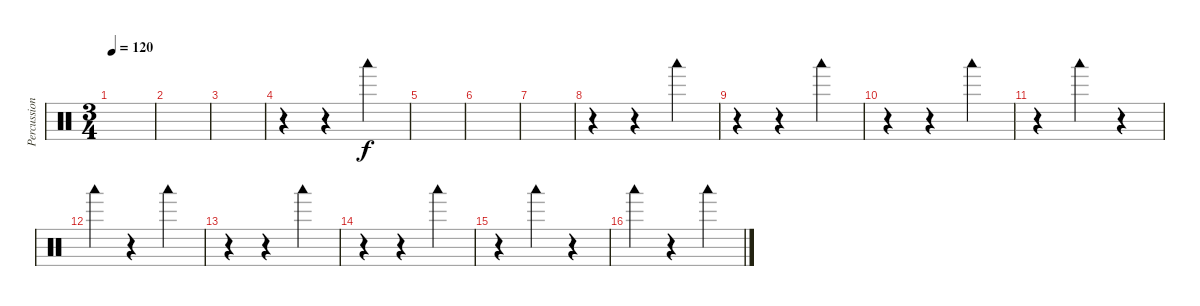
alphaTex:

\track ("Percussion" "Percussion") {instrument percussion}
\staff {score}
\articulation defaults
\ts (3 4)
\tempo 120
\clef neutral
\ks c
|
|
|
r.4 r.4 "Woodblock low (hit)".4 |
|
|
|
r.4 r.4 "Woodblock low (hit)".4 |
r.4 r.4 "Woodblock low (hit)".4 |
r.4 r.4 "Woodblock low (hit)".4 |
r.4 "Woodblock low (hit)".4 r.4 |
"Woodblock low (hit)".4 r.4 "Woodblock low (hit)".4 |
r.4 r.4 "Woodblock low (hit)".4 |
r.4 r.4 "Woodblock low (hit)".4 |
r.4 "Woodblock low (hit)".4 r.4 |
"Woodblock low (hit)".4 r.4 "Woodblock low (hit)".4
